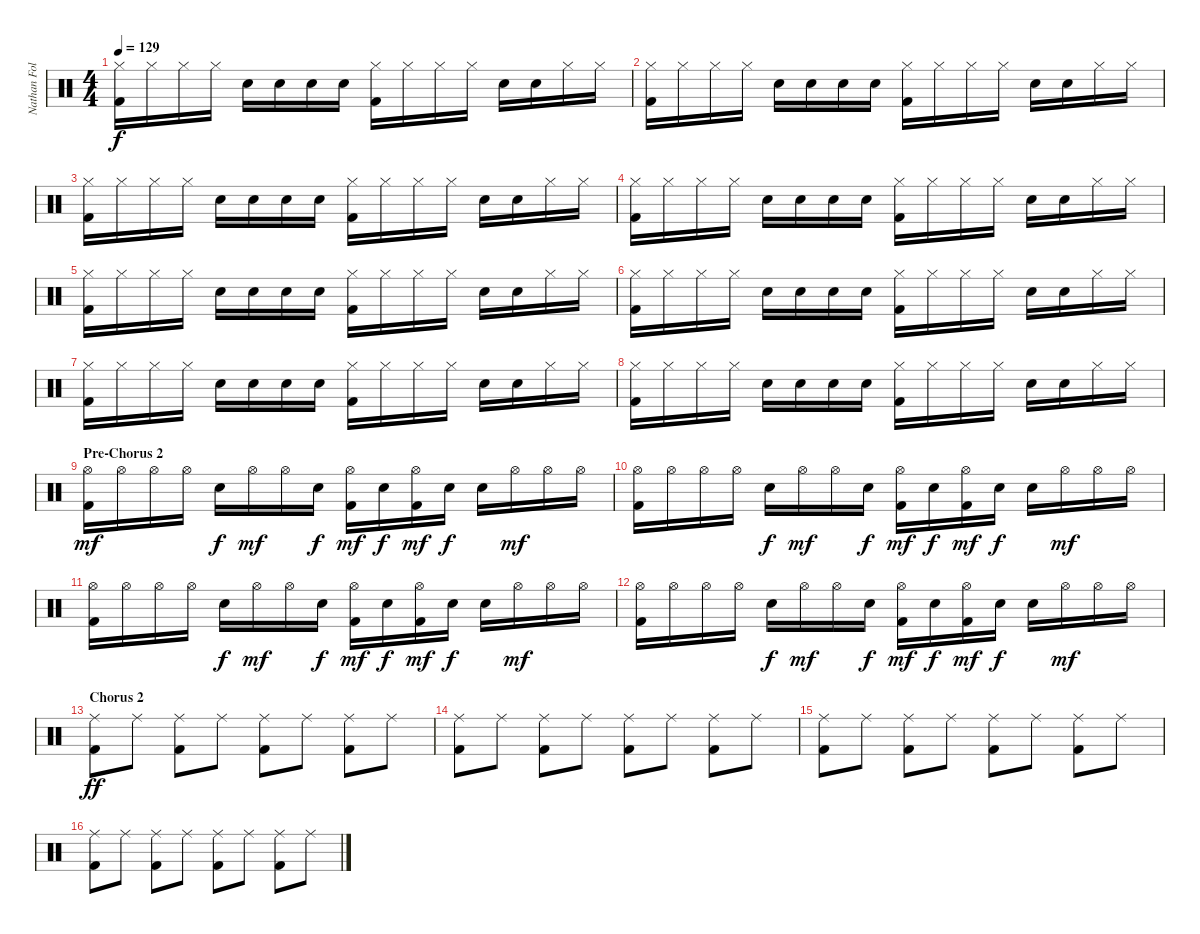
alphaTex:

\track ("Nathan Followill" "Nathan Fol") {instrument percussion}
\staff {score}
\articulation defaults
\ts (4 4)
\tempo 129
\clef neutral
\ks c
("Hi-Hat (closed)" "Kick (hit) 2").16{dy f} "Hi-Hat (closed)".16 "Hi-Hat (closed)".16 "Hi-Hat (closed)".16 "Electric Snare (hit)".16 "Electric Snare (hit)".16 "Electric Snare (hit)".16 "Electric Snare (hit)".16 ("Hi-Hat (closed)" "Kick (hit) 2").16 "Hi-Hat (closed)".16 "Hi-Hat (closed)".16 "Hi-Hat (closed)".16 "Electric Snare (hit)".16 "Electric Snare (hit)".16 "Hi-Hat (closed)".16 "Hi-Hat (closed)".16 |
("Hi-Hat (closed)" "Kick (hit) 2").16 "Hi-Hat (closed)".16 "Hi-Hat (closed)".16 "Hi-Hat (closed)".16 "Electric Snare (hit)".16 "Electric Snare (hit)".16 "Electric Snare (hit)".16 "Electric Snare (hit)".16 ("Hi-Hat (closed)" "Kick (hit) 2").16 "Hi-Hat (closed)".16 "Hi-Hat (closed)".16 "Hi-Hat (closed)".16 "Electric Snare (hit)".16 "Electric Snare (hit)".16 "Hi-Hat (closed)".16 "Hi-Hat (closed)".16 |
("Hi-Hat (closed)" "Kick (hit) 2").16 "Hi-Hat (closed)".16 "Hi-Hat (closed)".16 "Hi-Hat (closed)".16 "Electric Snare (hit)".16 "Electric Snare (hit)".16 "Electric Snare (hit)".16 "Electric Snare (hit)".16 ("Hi-Hat (closed)" "Kick (hit) 2").16 "Hi-Hat (closed)".16 "Hi-Hat (closed)".16 "Hi-Hat (closed)".16 "Electric Snare (hit)".16 "Electric Snare (hit)".16 "Hi-Hat (closed)".16 "Hi-Hat (closed)".16 |
("Hi-Hat (closed)" "Kick (hit) 2").16 "Hi-Hat (closed)".16 "Hi-Hat (closed)".16 "Hi-Hat (closed)".16 "Electric Snare (hit)".16 "Electric Snare (hit)".16 "Electric Snare (hit)".16 "Electric Snare (hit)".16 ("Hi-Hat (closed)" "Kick (hit) 2").16 "Hi-Hat (closed)".16 "Hi-Hat (closed)".16 "Hi-Hat (closed)".16 "Electric Snare (hit)".16 "Electric Snare (hit)".16 "Hi-Hat (closed)".16 "Hi-Hat (closed)".16 |
("Hi-Hat (closed)" "Kick (hit) 2").16 "Hi-Hat (closed)".16 "Hi-Hat (closed)".16 "Hi-Hat (closed)".16 "Electric Snare (hit)".16 "Electric Snare (hit)".16 "Electric Snare (hit)".16 "Electric Snare (hit)".16 ("Hi-Hat (closed)" "Kick (hit) 2").16 "Hi-Hat (closed)".16 "Hi-Hat (closed)".16 "Hi-Hat (closed)".16 "Electric Snare (hit)".16 "Electric Snare (hit)".16 "Hi-Hat (closed)".16 "Hi-Hat (closed)".16 |
("Hi-Hat (closed)" "Kick (hit) 2").16 "Hi-Hat (closed)".16 "Hi-Hat (closed)".16 "Hi-Hat (closed)".16 "Electric Snare (hit)".16 "Electric Snare (hit)".16 "Electric Snare (hit)".16 "Electric Snare (hit)".16 ("Hi-Hat (closed)" "Kick (hit) 2").16 "Hi-Hat (closed)".16 "Hi-Hat (closed)".16 "Hi-Hat (closed)".16 "Electric Snare (hit)".16 "Electric Snare (hit)".16 "Hi-Hat (closed)".16 "Hi-Hat (closed)".16 |
("Hi-Hat (closed)" "Kick (hit) 2").16 "Hi-Hat (closed)".16 "Hi-Hat (closed)".16 "Hi-Hat (closed)".16 "Electric Snare (hit)".16 "Electric Snare (hit)".16 "Electric Snare (hit)".16 "Electric Snare (hit)".16 ("Hi-Hat (closed)" "Kick (hit) 2").16 "Hi-Hat (closed)".16 "Hi-Hat (closed)".16 "Hi-Hat (closed)".16 "Electric Snare (hit)".16 "Electric Snare (hit)".16 "Hi-Hat (closed)".16 "Hi-Hat (closed)".16 |
("Hi-Hat (closed)" "Kick (hit) 2").16 "Hi-Hat (closed)".16 "Hi-Hat (closed)".16 "Hi-Hat (closed)".16 "Electric Snare (hit)".16 "Electric Snare (hit)".16 "Electric Snare (hit)".16 "Electric Snare (hit)".16 ("Hi-Hat (closed)" "Kick (hit) 2").16 "Hi-Hat (closed)".16 "Hi-Hat (closed)".16 "Hi-Hat (closed)".16 "Electric Snare (hit)".16 "Electric Snare (hit)".16 "Hi-Hat (closed)".16 "Hi-Hat (closed)".16 |
\section ("" "Pre-Chorus 2")
("Hi-Hat (open)" "Kick (hit) 2").16{dy mf} "Hi-Hat (open)".16 "Hi-Hat (open)".16 "Hi-Hat (open)".16 "Electric Snare (hit)".16{dy f} "Hi-Hat (open)".16{dy mf} "Hi-Hat (open)".16 "Electric Snare (hit)".16{dy f} ("Hi-Hat (open)" "Kick (hit) 2").16{dy mf} "Electric Snare (hit)".16{dy f} ("Hi-Hat (open)" "Kick (hit) 2").16{dy mf} "Electric Snare (hit)".16{dy f} "Electric Snare (hit)".16 "Hi-Hat (open)".16{dy mf} "Hi-Hat (open)".16 "Hi-Hat (open)".16 |
("Hi-Hat (open)" "Kick (hit) 2").16 "Hi-Hat (open)".16 "Hi-Hat (open)".16 "Hi-Hat (open)".16 "Electric Snare (hit)".16{dy f} "Hi-Hat (open)".16{dy mf} "Hi-Hat (open)".16 "Electric Snare (hit)".16{dy f} ("Hi-Hat (open)" "Kick (hit) 2").16{dy mf} "Electric Snare (hit)".16{dy f} ("Hi-Hat (open)" "Kick (hit) 2").16{dy mf} "Electric Snare (hit)".16{dy f} "Electric Snare (hit)".16 "Hi-Hat (open)".16{dy mf} "Hi-Hat (open)".16 "Hi-Hat (open)".16 |
("Hi-Hat (open)" "Kick (hit) 2").16 "Hi-Hat (open)".16 "Hi-Hat (open)".16 "Hi-Hat (open)".16 "Electric Snare (hit)".16{dy f} "Hi-Hat (open)".16{dy mf} "Hi-Hat (open)".16 "Electric Snare (hit)".16{dy f} ("Hi-Hat (open)" "Kick (hit) 2").16{dy mf} "Electric Snare (hit)".16{dy f} ("Hi-Hat (open)" "Kick (hit) 2").16{dy mf} "Electric Snare (hit)".16{dy f} "Electric Snare (hit)".16 "Hi-Hat (open)".16{dy mf} "Hi-Hat (open)".16 "Hi-Hat (open)".16 |
("Hi-Hat (open)" "Kick (hit) 2").16 "Hi-Hat (open)".16 "Hi-Hat (open)".16 "Hi-Hat (open)".16 "Electric Snare (hit)".16{dy f} "Hi-Hat (open)".16{dy mf} "Hi-Hat (open)".16 "Electric Snare (hit)".16{dy f} ("Hi-Hat (open)" "Kick (hit) 2").16{dy mf} "Electric Snare (hit)".16{dy f} ("Hi-Hat (open)" "Kick (hit) 2").16{dy mf} "Electric Snare (hit)".16{dy f} "Electric Snare (hit)".16 "Hi-Hat (open)".16{dy mf} "Hi-Hat (open)".16 "Hi-Hat (open)".16 |
\section ("" "Chorus 2 ")
("Ride (middle)" "Kick (hit) 2").8{dy ff} "Ride (middle)".8 ("Ride (middle)" "Kick (hit) 2").8 "Ride (middle)".8 ("Ride (middle)" "Kick (hit) 2").8 "Ride (middle)".8 ("Ride (middle)" "Kick (hit) 2").8 "Ride (middle)".8 |
("Ride (middle)" "Kick (hit) 2").8 "Ride (middle)".8 ("Ride (middle)" "Kick (hit) 2").8 "Ride (middle)".8 ("Ride (middle)" "Kick (hit) 2").8 "Ride (middle)".8 ("Ride (middle)" "Kick (hit) 2").8 "Ride (middle)".8 |
("Ride (middle)" "Kick (hit) 2").8 "Ride (middle)".8 ("Ride (middle)" "Kick (hit) 2").8 "Ride (middle)".8 ("Ride (middle)" "Kick (hit) 2").8 "Ride (middle)".8 ("Ride (middle)" "Kick (hit) 2").8 "Ride (middle)".8 |
("Ride (middle)" "Kick (hit) 2").8 "Ride (middle)".8 ("Ride (middle)" "Kick (hit) 2").8 "Ride (middle)".8 ("Ride (middle)" "Kick (hit) 2").8 "Ride (middle)".8 ("Ride (middle)" "Kick (hit) 2").8 "Ride (middle)".8
